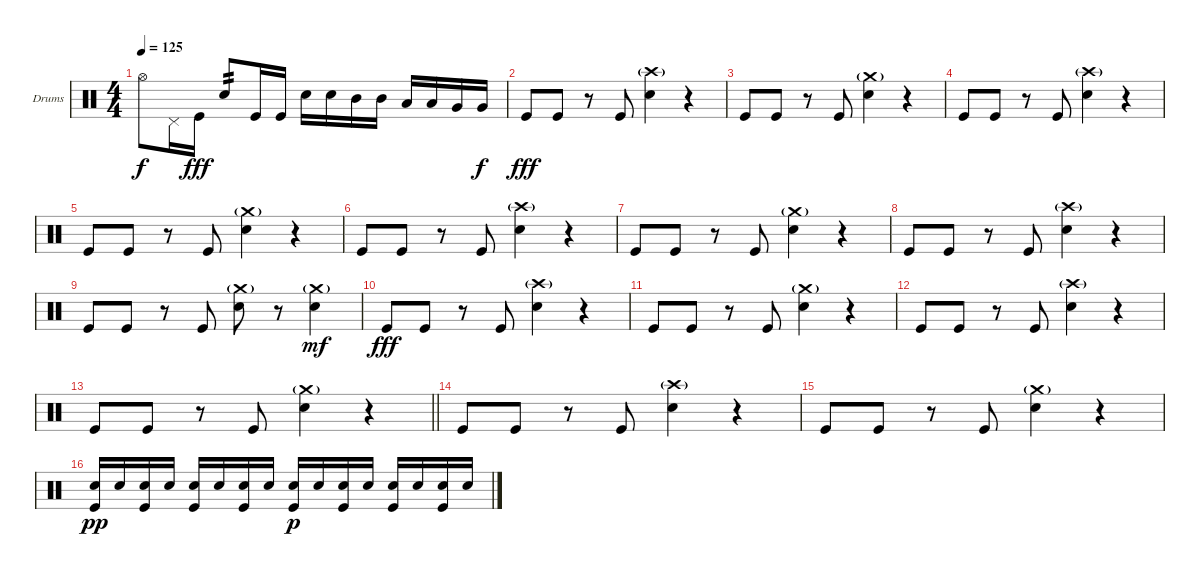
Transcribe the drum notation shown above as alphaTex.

\bracketExtendMode groupsimilarinstruments
\firstSystemTrackNameOrientation horizontal
\otherSystemsTrackNameOrientation horizontal
\track ("Drumkit" "Drums") {instrument percussion}
\staff {score}
\articulation defaults
\ts (4 4)
\tempo 125
\clef neutral
\ks c "Hi-Hat (open)".8{dy f} "Pedal Hi-Hat (hit)".16 "Kick (hit)".16{dy fff} "Snare (hit) 2".8{tp 2} "Kick (hit)".16 "Kick (hit)".16 "Snare (hit) 2".16 "Snare (hit) 2".16 "Mid Tom (hit)".16 "Mid Tom (hit)".16 "Low Tom (hit)".16 "Low Tom (hit)".16 "Very Low Tom (hit)".16 "Very Low Tom (hit)".16{dy f}
|
"Kick (hit)".8{dy fff} "Kick (hit)".8 r.8 "Kick (hit)".8 ("Crash high (hit)"{g} "Snare (hit) 2").4 r.4 |
"Kick (hit)".8 "Kick (hit)".8 r.8 "Kick (hit)".8 ("Crash medium (hit)"{g} "Snare (hit) 2").4 r.4 |
"Kick (hit)".8 "Kick (hit)".8 r.8 "Kick (hit)".8 ("Crash high (hit)"{g} "Snare (hit) 2").4 r.4 |
"Kick (hit)".8 "Kick (hit)".8 r.8 "Kick (hit)".8 ("Crash medium (hit)"{g} "Snare (hit) 2").4 r.4 |
"Kick (hit)".8 "Kick (hit)".8 r.8 "Kick (hit)".8 ("Crash high (hit)"{g} "Snare (hit) 2").4 r.4 |
"Kick (hit)".8 "Kick (hit)".8 r.8 "Kick (hit)".8 ("Crash medium (hit)"{g} "Snare (hit) 2").4 r.4 |
"Kick (hit)".8 "Kick (hit)".8 r.8 "Kick (hit)".8 ("Crash high (hit)"{g} "Snare (hit) 2").4 r.4 |
"Kick (hit)".8 "Kick (hit)".8 r.8 "Kick (hit)".8 ("Crash medium (hit)"{g} "Snare (hit) 2").8 r.8 ("Crash medium (hit)"{g} "Snare (hit) 2").4{dy mf} |
"Kick (hit)".8{dy fff} "Kick (hit)".8 r.8 "Kick (hit)".8 ("Crash high (hit)"{g} "Snare (hit) 2").4 r.4 |
"Kick (hit)".8 "Kick (hit)".8 r.8 "Kick (hit)".8 ("Crash medium (hit)"{g} "Snare (hit) 2").4 r.4 |
"Kick (hit)".8 "Kick (hit)".8 r.8 "Kick (hit)".8 ("Crash high (hit)"{g} "Snare (hit) 2").4 r.4 |
\barLineRight lightlight "Kick (hit)".8 "Kick (hit)".8
r.8 "Kick (hit)".8 ("Crash medium (hit)"{g} "Snare (hit) 2").4 r.4 |
"Kick (hit)".8 "Kick (hit)".8 r.8 "Kick (hit)".8 ("Crash high (hit)"{g} "Snare (hit) 2").4 r.4 |
"Kick (hit)".8 "Kick (hit)".8 r.8 "Kick (hit)".8 ("Crash medium (hit)"{g} "Snare (hit) 2").4 r.4 |
("Snare (hit) 2" "Kick (hit)").16{dy pp} "Snare (hit) 2".16 ("Snare (hit) 2" "Kick (hit)").16 "Snare (hit) 2".16 ("Snare (hit) 2" "Kick (hit)").16 "Snare (hit) 2".16 ("Snare (hit) 2" "Kick (hit)").16 "Snare (hit) 2".16 ("Snare (hit) 2" "Kick (hit)").16{dy p} "Snare (hit) 2".16 ("Snare (hit) 2" "Kick (hit)").16 "Snare (hit) 2".16 ("Snare (hit) 2" "Kick (hit)").16 "Snare (hit) 2".16 ("Snare (hit) 2" "Kick (hit)").16 "Snare (hit) 2".16
